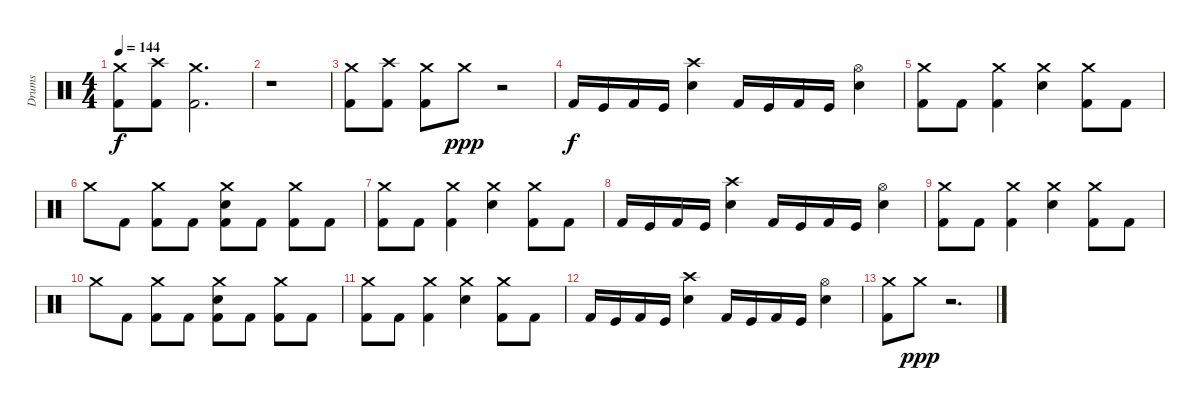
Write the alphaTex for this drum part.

\track ("Drums" "Drums") {instrument percussion}
\staff
\articulation defaults
\ts (4 4)
\tempo 144
\clef neutral
\ks c
("Crash medium (hit)" "Kick (hit) 2").8{dy f} ("Crash high (hit)" "Kick (hit) 2").8 ("Crash medium (hit)" "Kick (hit) 2").2{d} |
r.1 |
("Crash medium (hit)" "Kick (hit) 2").8 ("Crash high (hit)" "Kick (hit) 2").8 ("Crash medium (hit)" "Kick (hit) 2").8 "Crash medium (hit)".8{dy ppp} r.2 |
"Kick (hit) 2".16{dy f} "Kick (hit)".16 "Kick (hit) 2".16 "Kick (hit)".16 ("Crash high (hit)" "Electric Snare (hit)").4 "Kick (hit) 2".16 "Kick (hit)".16 "Kick (hit) 2".16 "Kick (hit)".16 ("Hi-Hat (open)" "Electric Snare (hit)").4 |
("Crash medium (hit)" "Kick (hit) 2").8 "Kick (hit) 2".8 ("Crash medium (hit)" "Kick (hit) 2").4 ("Crash medium (hit)" "Electric Snare (hit)").4 ("Crash medium (hit)" "Kick (hit) 2").8 "Kick (hit) 2".8 |
"Crash medium (hit)".8 "Kick (hit) 2".8 ("Crash medium (hit)" "Kick (hit) 2").8 "Kick (hit) 2".8 ("Crash medium (hit)" "Electric Snare (hit)" "Kick (hit) 2").8 "Kick (hit) 2".8 ("Crash medium (hit)" "Kick (hit) 2").8 "Kick (hit) 2".8 |
("Crash medium (hit)" "Kick (hit) 2").8 "Kick (hit) 2".8 ("Crash medium (hit)" "Kick (hit) 2").4 ("Crash medium (hit)" "Electric Snare (hit)").4 ("Crash medium (hit)" "Kick (hit) 2").8 "Kick (hit) 2".8 |
"Kick (hit) 2".16 "Kick (hit)".16 "Kick (hit) 2".16 "Kick (hit)".16 ("Crash high (hit)" "Electric Snare (hit)").4 "Kick (hit) 2".16 "Kick (hit)".16 "Kick (hit) 2".16 "Kick (hit)".16 ("Hi-Hat (open)" "Electric Snare (hit)").4 |
("Crash medium (hit)" "Kick (hit) 2").8 "Kick (hit) 2".8 ("Crash medium (hit)" "Kick (hit) 2").4 ("Crash medium (hit)" "Electric Snare (hit)").4 ("Crash medium (hit)" "Kick (hit) 2").8 "Kick (hit) 2".8 |
"Crash medium (hit)".8 "Kick (hit) 2".8 ("Crash medium (hit)" "Kick (hit) 2").8 "Kick (hit) 2".8 ("Crash medium (hit)" "Electric Snare (hit)" "Kick (hit) 2").8 "Kick (hit) 2".8 ("Crash medium (hit)" "Kick (hit) 2").8 "Kick (hit) 2".8 |
("Crash medium (hit)" "Kick (hit) 2").8 "Kick (hit) 2".8 ("Crash medium (hit)" "Kick (hit) 2").4 ("Crash medium (hit)" "Electric Snare (hit)").4 ("Crash medium (hit)" "Kick (hit) 2").8 "Kick (hit) 2".8 |
"Kick (hit) 2".16 "Kick (hit)".16 "Kick (hit) 2".16 "Kick (hit)".16 ("Crash high (hit)" "Electric Snare (hit)").4 "Kick (hit) 2".16 "Kick (hit)".16 "Kick (hit) 2".16 "Kick (hit)".16 ("Hi-Hat (open)" "Electric Snare (hit)").4 |
("Crash medium (hit)" "Kick (hit) 2").8 "Crash medium (hit)".8{dy ppp} r.2{d}
